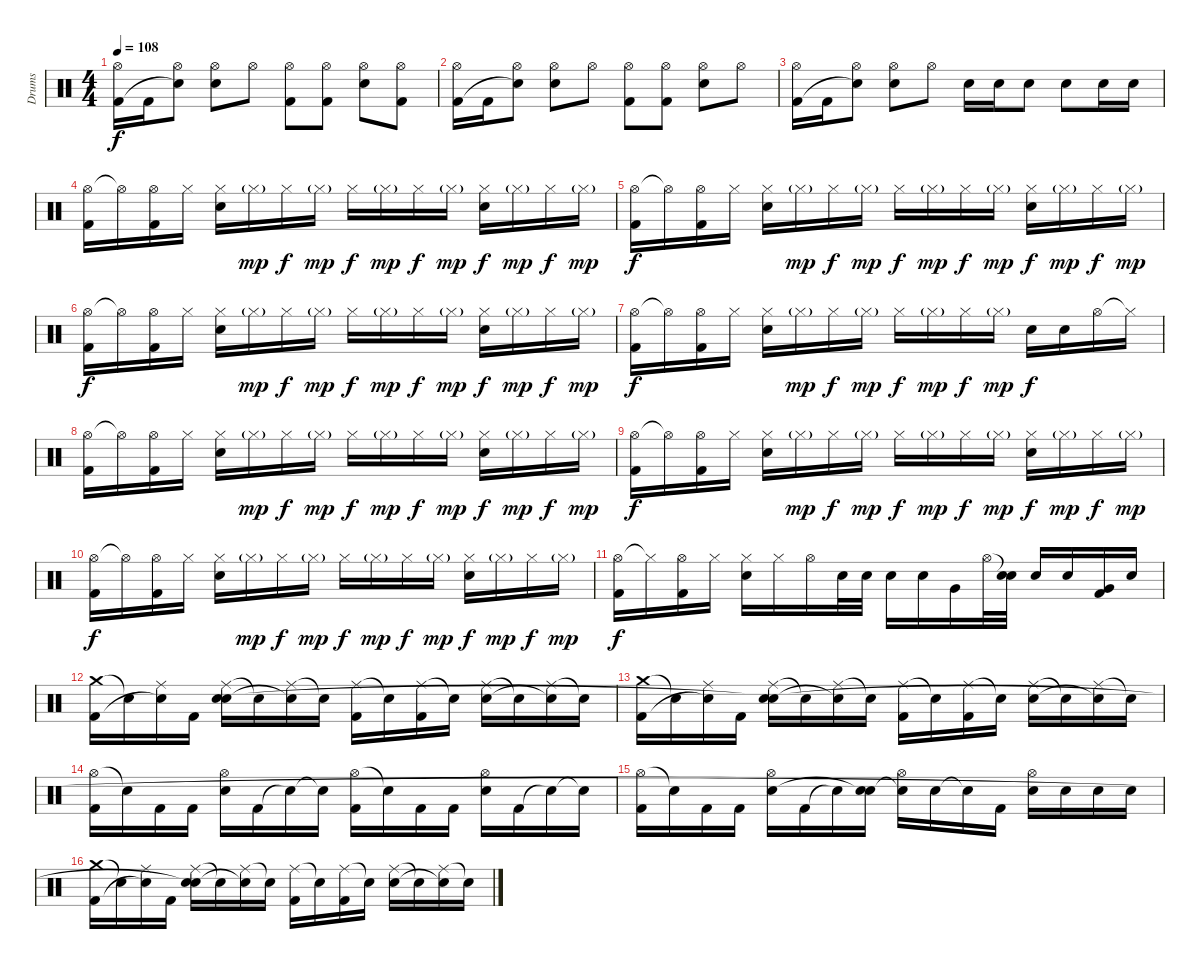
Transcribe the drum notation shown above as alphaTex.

\track ("Drums" "Drums") {instrument percussion}
\staff {score}
\articulation defaults
\ts (4 4)
\tempo 108
\clef neutral
\ks c
("Hi-Hat (open)" "Kick (hit) 2").16{dy f} "Kick (hit) 2".16 ("Hi-Hat (open)" "Snare (hit)"{t}).8 ("Hi-Hat (open)" "Electric Snare (hit)").8 "Hi-Hat (open)".8 ("Hi-Hat (open)" "Kick (hit) 2").8 ("Hi-Hat (open)" "Kick (hit) 2").8 ("Hi-Hat (open)" "Electric Snare (hit)").8 ("Hi-Hat (open)" "Kick (hit) 2").8 |
("Hi-Hat (open)" "Kick (hit) 2").16 "Kick (hit) 2".16 ("Hi-Hat (open)" "Snare (hit)"{t}).8 ("Hi-Hat (open)" "Electric Snare (hit)").8 "Hi-Hat (open)".8 ("Hi-Hat (open)" "Kick (hit) 2").8 ("Hi-Hat (open)" "Kick (hit) 2").8 ("Hi-Hat (open)" "Electric Snare (hit)").8 "Hi-Hat (open)".8 |
("Hi-Hat (open)" "Kick (hit) 2").16 "Kick (hit) 2".16 ("Hi-Hat (open)" "Snare (hit)"{t}).8 ("Hi-Hat (open)" "Electric Snare (hit)").8 "Hi-Hat (open)".8 "Electric Snare (hit)".16 "Electric Snare (hit)".16 "Electric Snare (hit)".8 "Electric Snare (hit)".8 "Electric Snare (hit)".16 "Electric Snare (hit)".16 |
("Hi-Hat (open)" "Kick (hit) 2").16 "Hi-Hat (open)"{t}.16 ("Hi-Hat (open)" "Kick (hit) 2").16 "Hi-Hat (closed)".16 ("Hi-Hat (closed)" "Electric Snare (hit)").16 "Hi-Hat (closed)"{g}.16{dy mp} "Hi-Hat (closed)".16{dy f} "Hi-Hat (closed)"{g}.16{dy mp} "Hi-Hat (closed)".16{dy f} "Hi-Hat (closed)"{g}.16{dy mp} "Hi-Hat (closed)".16{dy f} "Hi-Hat (closed)"{g}.16{dy mp} ("Hi-Hat (closed)" "Electric Snare (hit)").16{dy f} "Hi-Hat (closed)"{g}.16{dy mp} "Hi-Hat (closed)".16{dy f} "Hi-Hat (closed)"{g}.16{dy mp} |
("Hi-Hat (open)" "Kick (hit) 2").16{dy f} "Hi-Hat (open)"{t}.16 ("Hi-Hat (open)" "Kick (hit) 2").16 "Hi-Hat (closed)".16 ("Hi-Hat (closed)" "Electric Snare (hit)").16 "Hi-Hat (closed)"{g}.16{dy mp} "Hi-Hat (closed)".16{dy f} "Hi-Hat (closed)"{g}.16{dy mp} "Hi-Hat (closed)".16{dy f} "Hi-Hat (closed)"{g}.16{dy mp} "Hi-Hat (closed)".16{dy f} "Hi-Hat (closed)"{g}.16{dy mp} ("Hi-Hat (closed)" "Electric Snare (hit)").16{dy f} "Hi-Hat (closed)"{g}.16{dy mp} "Hi-Hat (closed)".16{dy f} "Hi-Hat (closed)"{g}.16{dy mp} |
("Hi-Hat (open)" "Kick (hit) 2").16{dy f} "Hi-Hat (open)"{t}.16 ("Hi-Hat (open)" "Kick (hit) 2").16 "Hi-Hat (closed)".16 ("Hi-Hat (closed)" "Electric Snare (hit)").16 "Hi-Hat (closed)"{g}.16{dy mp} "Hi-Hat (closed)".16{dy f} "Hi-Hat (closed)"{g}.16{dy mp} "Hi-Hat (closed)".16{dy f} "Hi-Hat (closed)"{g}.16{dy mp} "Hi-Hat (closed)".16{dy f} "Hi-Hat (closed)"{g}.16{dy mp} ("Hi-Hat (closed)" "Electric Snare (hit)").16{dy f} "Hi-Hat (closed)"{g}.16{dy mp} "Hi-Hat (closed)".16{dy f} "Hi-Hat (closed)"{g}.16{dy mp} |
("Hi-Hat (open)" "Kick (hit) 2").16{dy f} "Hi-Hat (open)"{t}.16 ("Hi-Hat (open)" "Kick (hit) 2").16 "Hi-Hat (closed)".16 ("Hi-Hat (closed)" "Electric Snare (hit)").16 "Hi-Hat (closed)"{g}.16{dy mp} "Hi-Hat (closed)".16{dy f} "Hi-Hat (closed)"{g}.16{dy mp} "Hi-Hat (closed)".16{dy f} "Hi-Hat (closed)"{g}.16{dy mp} "Hi-Hat (closed)".16{dy f} "Hi-Hat (closed)"{g}.16{dy mp} "Electric Snare (hit)".16{dy f} "Electric Snare (hit)".16 "Hi-Hat (open)".16 "Hi-Hat (closed)"{t}.16 |
("Hi-Hat (open)" "Kick (hit) 2").16 "Hi-Hat (open)"{t}.16 ("Hi-Hat (open)" "Kick (hit) 2").16 "Hi-Hat (closed)".16 ("Hi-Hat (closed)" "Electric Snare (hit)").16 "Hi-Hat (closed)"{g}.16{dy mp} "Hi-Hat (closed)".16{dy f} "Hi-Hat (closed)"{g}.16{dy mp} "Hi-Hat (closed)".16{dy f} "Hi-Hat (closed)"{g}.16{dy mp} "Hi-Hat (closed)".16{dy f} "Hi-Hat (closed)"{g}.16{dy mp} ("Hi-Hat (closed)" "Electric Snare (hit)").16{dy f} "Hi-Hat (closed)"{g}.16{dy mp} "Hi-Hat (closed)".16{dy f} "Hi-Hat (closed)"{g}.16{dy mp} |
("Hi-Hat (open)" "Kick (hit) 2").16{dy f} "Hi-Hat (open)"{t}.16 ("Hi-Hat (open)" "Kick (hit) 2").16 "Hi-Hat (closed)".16 ("Hi-Hat (closed)" "Electric Snare (hit)").16 "Hi-Hat (closed)"{g}.16{dy mp} "Hi-Hat (closed)".16{dy f} "Hi-Hat (closed)"{g}.16{dy mp} "Hi-Hat (closed)".16{dy f} "Hi-Hat (closed)"{g}.16{dy mp} "Hi-Hat (closed)".16{dy f} "Hi-Hat (closed)"{g}.16{dy mp} ("Hi-Hat (closed)" "Electric Snare (hit)").16{dy f} "Hi-Hat (closed)"{g}.16{dy mp} "Hi-Hat (closed)".16{dy f} "Hi-Hat (closed)"{g}.16{dy mp} |
("Hi-Hat (open)" "Kick (hit) 2").16{dy f} "Hi-Hat (open)"{t}.16 ("Hi-Hat (open)" "Kick (hit) 2").16 "Hi-Hat (closed)".16 ("Hi-Hat (closed)" "Electric Snare (hit)").16 "Hi-Hat (closed)"{g}.16{dy mp} "Hi-Hat (closed)".16{dy f} "Hi-Hat (closed)"{g}.16{dy mp} "Hi-Hat (closed)".16{dy f} "Hi-Hat (closed)"{g}.16{dy mp} "Hi-Hat (closed)".16{dy f} "Hi-Hat (closed)"{g}.16{dy mp} ("Hi-Hat (closed)" "Electric Snare (hit)").16{dy f} "Hi-Hat (closed)"{g}.16{dy mp} "Hi-Hat (closed)".16{dy f} "Hi-Hat (closed)"{g}.16{dy mp} |
("Hi-Hat (open)" "Kick (hit) 2").16{dy f} "Hi-Hat (closed)"{t}.16 ("Hi-Hat (open)" "Kick (hit) 2").16 "Hi-Hat (closed)".16 ("Hi-Hat (closed)" "Electric Snare (hit)").16 "Hi-Hat (closed)".16 "Hi-Hat (open)".16 "Electric Snare (hit)".32 "Electric Snare (hit)".32 "Electric Snare (hit)".16 "Electric Snare (hit)".16 "Very Low Tom (hit)".16 "Hi-Hat (open)".32 ("Snare (hit)"{t} "Electric Snare (hit)").32 "Electric Snare (hit)".16 "Electric Snare (hit)".16 ("Very Low Tom (hit)" "Kick (hit) 2").16 "Electric Snare (hit)".16 |
("Crash medium (hit)" "Kick (hit) 2").16 "Snare (hit)"{t}.16 ("Ride (middle)" "Snare (hit)"{t}).16 "Kick (hit) 2".16 ("Ride (middle)" "Electric Snare (hit)" "Snare (hit)").16 "Snare (hit)"{t}.16 ("Ride (middle)" "Snare (hit)"{t}).16 "Snare (hit)"{t}.16 ("Ride (middle)" "Kick (hit) 2").16 "Snare (hit)"{t}.16 ("Ride (middle)" "Kick (hit) 2").16 "Snare (hit)"{t}.16 ("Ride (middle)" "Electric Snare (hit)").16 "Snare (hit)"{t}.16 ("Ride (middle)" "Snare (hit)"{t}).16 "Snare (hit)"{t}.16 |
("Crash medium (hit)" "Kick (hit) 2").16 "Snare (hit)"{t}.16 ("Ride (middle)" "Snare (hit)"{t}).16 "Kick (hit) 2".16 ("Ride (middle)" "Electric Snare (hit)" "Snare (hit)"{t}).16 "Snare (hit)"{t}.16 ("Ride (middle)" "Snare (hit)"{t}).16 "Snare (hit)"{t}.16 ("Ride (middle)" "Kick (hit) 2").16 "Snare (hit)"{t}.16 ("Ride (middle)" "Kick (hit) 2").16 "Snare (hit)"{t}.16 ("Ride (middle)" "Electric Snare (hit)").16 "Snare (hit)"{t}.16 ("Ride (middle)" "Snare (hit)"{t}).16 "Snare (hit)"{t}.16 |
("Hi-Hat (open)" "Kick (hit) 2").16 "Snare (hit)"{t}.16 "Kick (hit) 2".16 "Kick (hit) 2".16 ("Hi-Hat (open)" "Electric Snare (hit)").16 "Kick (hit) 2".16 "Snare (hit)"{t}.16 "Snare (hit)"{t}.16 ("Hi-Hat (open)" "Kick (hit) 2").16 "Snare (hit)"{t}.16 "Kick (hit) 2".16 "Kick (hit) 2".16 ("Hi-Hat (open)" "Electric Snare (hit)").16 "Kick (hit) 2".16 "Snare (hit)"{t}.16 "Snare (hit)"{t}.16 |
("Hi-Hat (open)" "Kick (hit) 2").16 "Snare (hit)"{t}.16 "Kick (hit) 2".16 "Kick (hit) 2".16 ("Hi-Hat (open)" "Electric Snare (hit)").16 "Kick (hit) 2".16 "Snare (hit)"{t}.16 ("Electric Snare (hit)" "Snare (hit)"{t}).16 ("Hi-Hat (open)" "Electric Snare (hit)"{t}).16 "Electric Snare (hit)".16 "Snare (hit)"{t}.16 "Kick (hit) 2".16 ("Hi-Hat (open)" "Electric Snare (hit)").16 "Electric Snare (hit)".16 "Electric Snare (hit)".16 "Electric Snare (hit)".16 |
("Crash medium (hit)" "Kick (hit) 2").16 "Snare (hit)"{t}.16 ("Ride (middle)" "Snare (hit)"{t}).16 "Kick (hit) 2".16 ("Ride (middle)" "Electric Snare (hit)" "Snare (hit)"{t}).16 "Snare (hit)"{t}.16 ("Ride (middle)" "Snare (hit)"{t}).16 "Snare (hit)"{t}.16 ("Ride (middle)" "Kick (hit) 2").16 "Snare (hit)"{t}.16 ("Ride (middle)" "Kick (hit) 2").16 "Snare (hit)"{t}.16 ("Ride (middle)" "Electric Snare (hit)").16 "Snare (hit)"{t}.16 ("Ride (middle)" "Snare (hit)"{t}).16 "Snare (hit)"{t}.16
